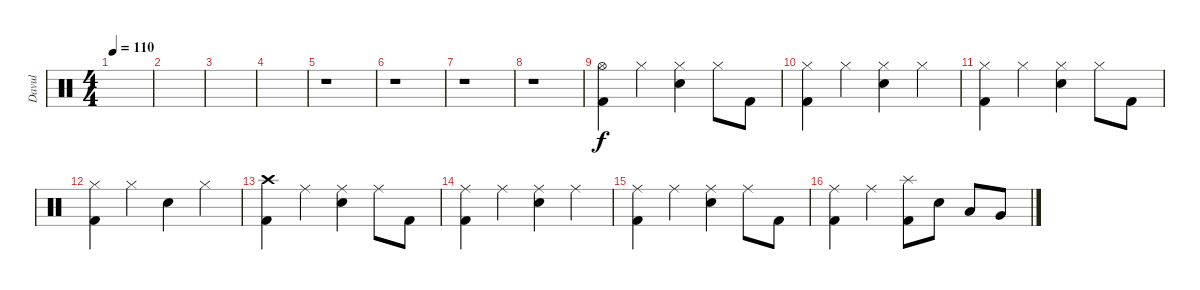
\track ("Davul" "Davul") {instrument percussion}
\staff {score}
\articulation defaults
\ts (4 4)
\tempo 110
\clef neutral
\ks c
|
|
|
|
r.1 |
r.1 |
r.1 |
r.1 |
("Hi-Hat (open)" "Kick (hit) 2").4 "Hi-Hat (closed)".4{dy f} ("Hi-Hat (closed)" "Electric Snare (hit)").4 "Hi-Hat (closed)".8 "Kick (hit) 2".8 |
("Hi-Hat (closed)" "Kick (hit) 2").4 "Hi-Hat (closed)".4 ("Hi-Hat (closed)" "Electric Snare (hit)").4 "Hi-Hat (closed)".4 |
("Hi-Hat (closed)" "Kick (hit) 2").4 "Hi-Hat (closed)".4 ("Hi-Hat (closed)" "Electric Snare (hit)").4 "Hi-Hat (closed)".8 "Kick (hit) 2".8 |
("Hi-Hat (closed)" "Kick (hit) 2").4 "Hi-Hat (closed)".4 "Electric Snare (hit)".4 "Hi-Hat (closed)".4 |
("Crash high (hit)" "Kick (hit) 2").4 "Ride (middle)".4 ("Ride (middle)" "Electric Snare (hit)").4 "Ride (middle)".8 "Kick (hit) 2".8 |
("Ride (middle)" "Kick (hit) 2").4 "Ride (middle)".4 ("Ride (middle)" "Electric Snare (hit)").4 "Ride (middle)".4 |
("Ride (middle)" "Kick (hit) 2").4 "Ride (middle)".4 ("Ride (middle)" "Electric Snare (hit)").4 "Ride (middle)".8 "Kick (hit) 2".8 |
("Ride (middle)" "Kick (hit) 2").4 "Ride (middle)".4 ("Splash (hit)" "Kick (hit) 2").8 "Electric Snare (hit)".8 "Low Tom (hit)".8 "Very Low Tom (hit)".8
